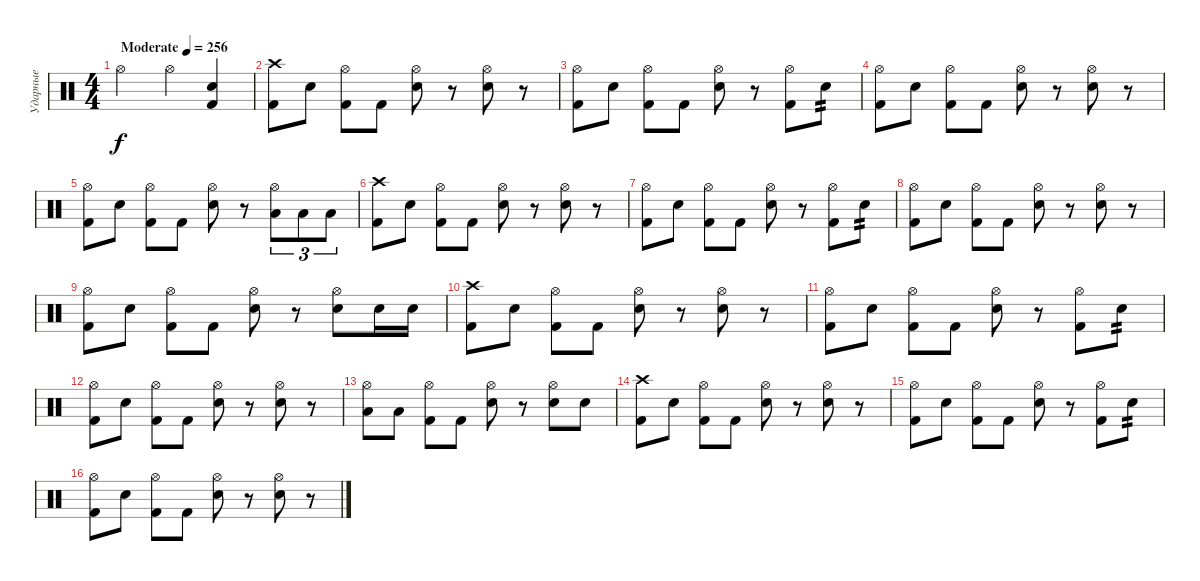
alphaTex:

\track ("Ударные" "Ударные") {instrument percussion}
\staff {score}
\articulation defaults
\ts (4 4)
\tempo (256 "Moderate")
\clef neutral
\ks c "Hi-Hat (open)".2{dy f} "Hi-Hat (open)".4
("Electric Snare (hit)" "Kick (hit) 2").4 |
("Crash high (hit)" "Kick (hit) 2").8 "Electric Snare (hit)".8 ("Hi-Hat (open)" "Kick (hit) 2").8 "Kick (hit) 2".8 ("Hi-Hat (open)" "Electric Snare (hit)").8 r.8 ("Hi-Hat (open)" "Electric Snare (hit)").8 r.8 |
("Hi-Hat (open)" "Kick (hit) 2").8 "Electric Snare (hit)".8 ("Hi-Hat (open)" "Kick (hit) 2").8 "Kick (hit) 2".8 ("Hi-Hat (open)" "Electric Snare (hit)").8 r.8 ("Hi-Hat (open)" "Kick (hit) 2").8 "Electric Snare (hit)".8{tp 2} |
("Hi-Hat (open)" "Kick (hit) 2").8 "Electric Snare (hit)".8 ("Hi-Hat (open)" "Kick (hit) 2").8 "Kick (hit) 2".8 ("Hi-Hat (open)" "Electric Snare (hit)").8 r.8 ("Hi-Hat (open)" "Electric Snare (hit)").8 r.8 |
("Hi-Hat (open)" "Kick (hit) 2").8 "Electric Snare (hit)".8 ("Hi-Hat (open)" "Kick (hit) 2").8 "Kick (hit) 2".8 ("Hi-Hat (open)" "Electric Snare (hit)").8 r.8 ("Hi-Hat (open)" "Low Tom (hit)").8{tu (3 2)} "Low Tom (hit)".8{tu (3 2)} "Low Tom (hit)".8{tu (3 2)} |
("Crash high (hit)" "Kick (hit) 2").8 "Electric Snare (hit)".8 ("Hi-Hat (open)" "Kick (hit) 2").8 "Kick (hit) 2".8 ("Hi-Hat (open)" "Electric Snare (hit)").8 r.8 ("Hi-Hat (open)" "Electric Snare (hit)").8 r.8 |
("Hi-Hat (open)" "Kick (hit) 2").8 "Electric Snare (hit)".8 ("Hi-Hat (open)" "Kick (hit) 2").8 "Kick (hit) 2".8 ("Hi-Hat (open)" "Electric Snare (hit)").8 r.8 ("Hi-Hat (open)" "Kick (hit) 2").8 "Electric Snare (hit)".8{tp 2} |
("Hi-Hat (open)" "Kick (hit) 2").8 "Electric Snare (hit)".8 ("Hi-Hat (open)" "Kick (hit) 2").8 "Kick (hit) 2".8 ("Hi-Hat (open)" "Electric Snare (hit)").8 r.8 ("Hi-Hat (open)" "Electric Snare (hit)").8 r.8 |
("Hi-Hat (open)" "Kick (hit) 2").8 "Electric Snare (hit)".8 ("Hi-Hat (open)" "Kick (hit) 2").8 "Kick (hit) 2".8 ("Hi-Hat (open)" "Electric Snare (hit)").8 r.8 ("Hi-Hat (open)" "Snare (hit) 2").8 "Snare (hit) 2".16 "Snare (hit) 2".16 |
("Crash high (hit)" "Kick (hit) 2").8 "Electric Snare (hit)".8 ("Hi-Hat (open)" "Kick (hit) 2").8 "Kick (hit) 2".8 ("Hi-Hat (open)" "Electric Snare (hit)").8 r.8 ("Hi-Hat (open)" "Electric Snare (hit)").8 r.8 |
("Hi-Hat (open)" "Kick (hit) 2").8 "Electric Snare (hit)".8 ("Hi-Hat (open)" "Kick (hit) 2").8 "Kick (hit) 2".8 ("Hi-Hat (open)" "Electric Snare (hit)").8 r.8 ("Hi-Hat (open)" "Kick (hit) 2").8 "Electric Snare (hit)".8{tp 2} |
("Hi-Hat (open)" "Kick (hit) 2").8 "Electric Snare (hit)".8 ("Hi-Hat (open)" "Kick (hit) 2").8 "Kick (hit) 2".8 ("Hi-Hat (open)" "Electric Snare (hit)").8 r.8 ("Hi-Hat (open)" "Electric Snare (hit)").8 r.8 |
("Hi-Hat (open)" "Low Tom (hit)").8 "Low Tom (hit)".8 ("Hi-Hat (open)" "Kick (hit) 2").8 "Kick (hit) 2".8 ("Hi-Hat (open)" "Electric Snare (hit)").8 r.8 ("Hi-Hat (open)" "Electric Snare (hit)").8 "Electric Snare (hit)".8 |
("Crash high (hit)" "Kick (hit) 2").8 "Electric Snare (hit)".8 ("Hi-Hat (open)" "Kick (hit) 2").8 "Kick (hit) 2".8 ("Hi-Hat (open)" "Electric Snare (hit)").8 r.8 ("Hi-Hat (open)" "Electric Snare (hit)").8 r.8 |
("Hi-Hat (open)" "Kick (hit) 2").8 "Electric Snare (hit)".8 ("Hi-Hat (open)" "Kick (hit) 2").8 "Kick (hit) 2".8 ("Hi-Hat (open)" "Electric Snare (hit)").8 r.8 ("Hi-Hat (open)" "Kick (hit) 2").8 "Electric Snare (hit)".8{tp 2} |
("Hi-Hat (open)" "Kick (hit) 2").8 "Electric Snare (hit)".8 ("Hi-Hat (open)" "Kick (hit) 2").8 "Kick (hit) 2".8 ("Hi-Hat (open)" "Electric Snare (hit)").8 r.8 ("Hi-Hat (open)" "Electric Snare (hit)").8 r.8
